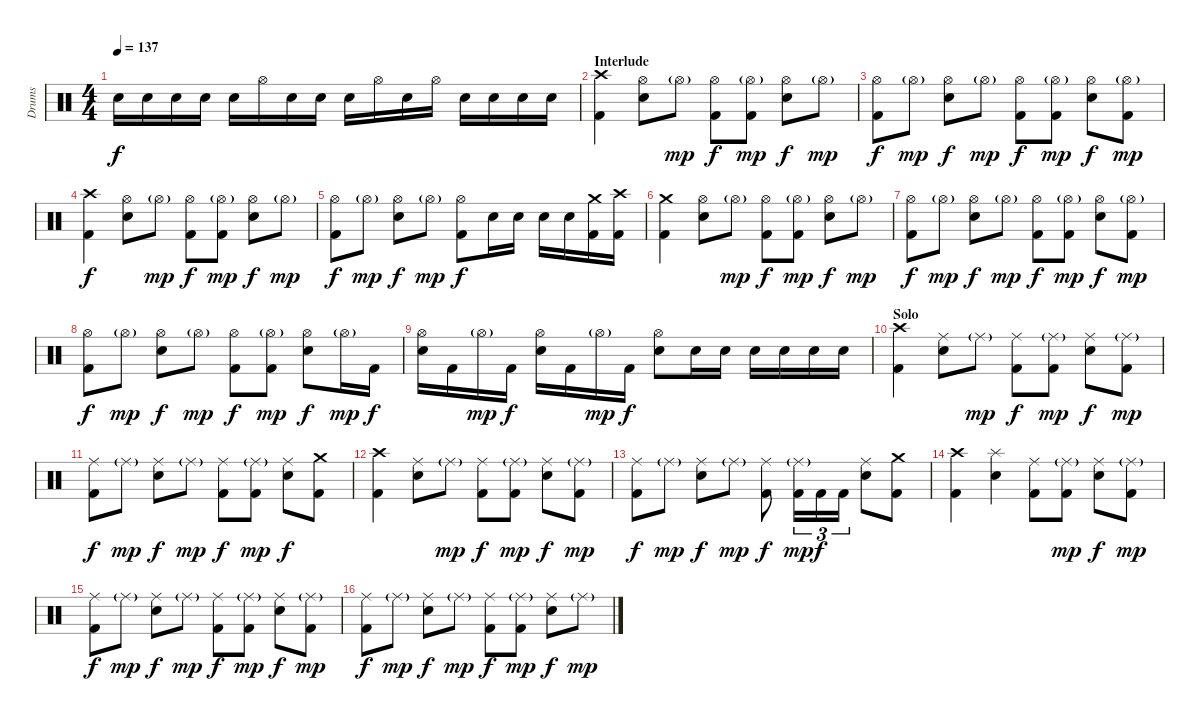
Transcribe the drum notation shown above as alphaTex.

\track ("Drums" "Drums") {instrument percussion}
\staff {score}
\articulation defaults
\ts (4 4)
\tempo 137
\clef neutral
\ks c "Snare (hit) 2".16{dy f} "Snare (hit) 2".16 "Snare (hit) 2".16 "Snare (hit) 2".16 "Snare (hit) 2".16 "Hi-Hat (open)".16 "Snare (hit) 2".16 "Snare (hit) 2".16 "Snare (hit) 2".16 "Hi-Hat (open)".16 "Snare (hit) 2".16 "Hi-Hat (open)".16 "Snare (hit) 2".16 "Snare (hit) 2".16 "Snare (hit) 2".16 "Snare (hit) 2".16
|
\section ("" "Interlude")
("Crash high (hit)" "Kick (hit) 2").4 ("Hi-Hat (open)" "Snare (hit) 2").8 "Hi-Hat (open)"{g}.8{dy mp} ("Hi-Hat (open)" "Kick (hit) 2").8{dy f} ("Hi-Hat (open)"{g} "Kick (hit) 2").8{dy mp} ("Hi-Hat (open)" "Snare (hit) 2").8{dy f} "Hi-Hat (open)"{g}.8{dy mp} |
("Hi-Hat (open)" "Kick (hit) 2").8{dy f} "Hi-Hat (open)"{g}.8{dy mp} ("Hi-Hat (open)" "Snare (hit) 2").8{dy f} "Hi-Hat (open)"{g}.8{dy mp} ("Hi-Hat (open)" "Kick (hit) 2").8{dy f} ("Hi-Hat (open)"{g} "Kick (hit) 2").8{dy mp} ("Hi-Hat (open)" "Snare (hit) 2").8{dy f} ("Hi-Hat (open)"{g} "Kick (hit) 2").8{dy mp} |
("Crash high (hit)" "Kick (hit) 2").4{dy f} ("Hi-Hat (open)" "Snare (hit) 2").8 "Hi-Hat (open)"{g}.8{dy mp} ("Hi-Hat (open)" "Kick (hit) 2").8{dy f} ("Hi-Hat (open)"{g} "Kick (hit) 2").8{dy mp} ("Hi-Hat (open)" "Snare (hit) 2").8{dy f} "Hi-Hat (open)"{g}.8{dy mp} |
("Hi-Hat (open)" "Kick (hit) 2").8{dy f} "Hi-Hat (open)"{g}.8{dy mp} ("Hi-Hat (open)" "Snare (hit) 2").8{dy f} "Hi-Hat (open)"{g}.8{dy mp} ("Hi-Hat (open)" "Kick (hit) 2").8{dy f} "Snare (hit) 2".16 "Snare (hit) 2".16 "Snare (hit) 2".16 "Snare (hit) 2".16 ("Crash medium (hit)" "Kick (hit) 2").16 ("Crash high (hit)" "Kick (hit) 2").16 |
("Crash medium (hit)" "Kick (hit) 2").4 ("Hi-Hat (open)" "Snare (hit) 2").8 "Hi-Hat (open)"{g}.8{dy mp} ("Hi-Hat (open)" "Kick (hit) 2").8{dy f} ("Hi-Hat (open)"{g} "Kick (hit) 2").8{dy mp} ("Hi-Hat (open)" "Snare (hit) 2").8{dy f} "Hi-Hat (open)"{g}.8{dy mp} |
("Hi-Hat (open)" "Kick (hit) 2").8{dy f} "Hi-Hat (open)"{g}.8{dy mp} ("Hi-Hat (open)" "Snare (hit) 2").8{dy f} "Hi-Hat (open)"{g}.8{dy mp} ("Hi-Hat (open)" "Kick (hit) 2").8{dy f} ("Hi-Hat (open)"{g} "Kick (hit) 2").8{dy mp} ("Hi-Hat (open)" "Snare (hit) 2").8{dy f} ("Hi-Hat (open)"{g} "Kick (hit) 2").8{dy mp} |
("Hi-Hat (open)" "Kick (hit) 2").8{dy f} "Hi-Hat (open)"{g}.8{dy mp} ("Hi-Hat (open)" "Snare (hit) 2").8{dy f} "Hi-Hat (open)"{g}.8{dy mp} ("Hi-Hat (open)" "Kick (hit) 2").8{dy f} ("Hi-Hat (open)"{g} "Kick (hit) 2").8{dy mp} ("Hi-Hat (open)" "Snare (hit) 2").8{dy f} "Hi-Hat (open)"{g}.16{dy mp} "Kick (hit) 2".16{dy f} |
("Hi-Hat (open)" "Snare (hit) 2").16 "Kick (hit) 2".16 "Hi-Hat (open)"{g}.16{dy mp} "Kick (hit) 2".16{dy f} ("Hi-Hat (open)" "Snare (hit) 2").16 "Kick (hit) 2".16 "Hi-Hat (open)"{g}.16{dy mp} "Kick (hit) 2".16{dy f} ("Hi-Hat (open)" "Snare (hit) 2").8 "Snare (hit) 2".16 "Snare (hit) 2".16 "Snare (hit) 2".16 "Snare (hit) 2".16 "Snare (hit) 2".16 "Snare (hit) 2".16 |
\section ("" "Solo")
("Crash high (hit)" "Kick (hit) 2").4 ("Ride (middle)" "Snare (hit) 2").8 "Ride (middle)"{g}.8{dy mp} ("Ride (middle)" "Kick (hit) 2").8{dy f} ("Ride (middle)"{g} "Kick (hit) 2").8{dy mp} ("Ride (middle)" "Snare (hit) 2").8{dy f} ("Ride (middle)"{g} "Kick (hit) 2").8{dy mp} |
("Ride (middle)" "Kick (hit) 2").8{dy f} "Ride (middle)"{g}.8{dy mp} ("Ride (middle)" "Snare (hit) 2").8{dy f} "Ride (middle)"{g}.8{dy mp} ("Ride (middle)" "Kick (hit) 2").8{dy f} ("Ride (middle)"{g} "Kick (hit) 2").8{dy mp} ("Ride (middle)" "Snare (hit) 2").8{dy f} ("Crash medium (hit)" "Kick (hit) 2").8 |
("Crash high (hit)" "Kick (hit) 2").4 ("Ride (middle)" "Snare (hit) 2").8 "Ride (middle)"{g}.8{dy mp} ("Ride (middle)" "Kick (hit) 2").8{dy f} ("Ride (middle)"{g} "Kick (hit) 2").8{dy mp} ("Ride (middle)" "Snare (hit) 2").8{dy f} ("Ride (middle)"{g} "Kick (hit) 2").8{dy mp} |
("Ride (middle)" "Kick (hit) 2").8{dy f} "Ride (middle)"{g}.8{dy mp} ("Ride (middle)" "Snare (hit) 2").8{dy f} "Ride (middle)"{g}.8{dy mp} ("Ride (middle)" "Kick (hit) 2").8{dy f} ("Ride (middle)"{g} "Kick (hit) 2").16{tu (3 2) dy mp} "Kick (hit) 2".16{tu (3 2) dy f} "Kick (hit) 2".16{tu (3 2)} ("Ride (middle)" "Snare (hit) 2").8 ("Crash medium (hit)" "Kick (hit) 2").8 |
("Crash high (hit)" "Kick (hit) 2").4 ("Splash (hit)" "Snare (hit) 2").4 ("Ride (middle)" "Kick (hit) 2").8 ("Ride (middle)"{g} "Kick (hit) 2").8{dy mp} ("Ride (middle)" "Snare (hit) 2").8{dy f} ("Ride (middle)"{g} "Kick (hit) 2").8{dy mp} |
("Ride (middle)" "Kick (hit) 2").8{dy f} "Ride (middle)"{g}.8{dy mp} ("Ride (middle)" "Snare (hit) 2").8{dy f} "Ride (middle)"{g}.8{dy mp} ("Ride (middle)" "Kick (hit) 2").8{dy f} ("Ride (middle)"{g} "Kick (hit) 2").8{dy mp} ("Ride (middle)" "Snare (hit) 2").8{dy f} ("Ride (middle)"{g} "Kick (hit) 2").8{dy mp} |
("Ride (middle)" "Kick (hit) 2").8{dy f} "Ride (middle)"{g}.8{dy mp} ("Ride (middle)" "Snare (hit) 2").8{dy f} "Ride (middle)"{g}.8{dy mp} ("Ride (middle)" "Kick (hit) 2").8{dy f} ("Ride (middle)"{g} "Kick (hit) 2").8{dy mp} ("Ride (middle)" "Snare (hit) 2").8{dy f} "Ride (middle)"{g}.8{dy mp}
